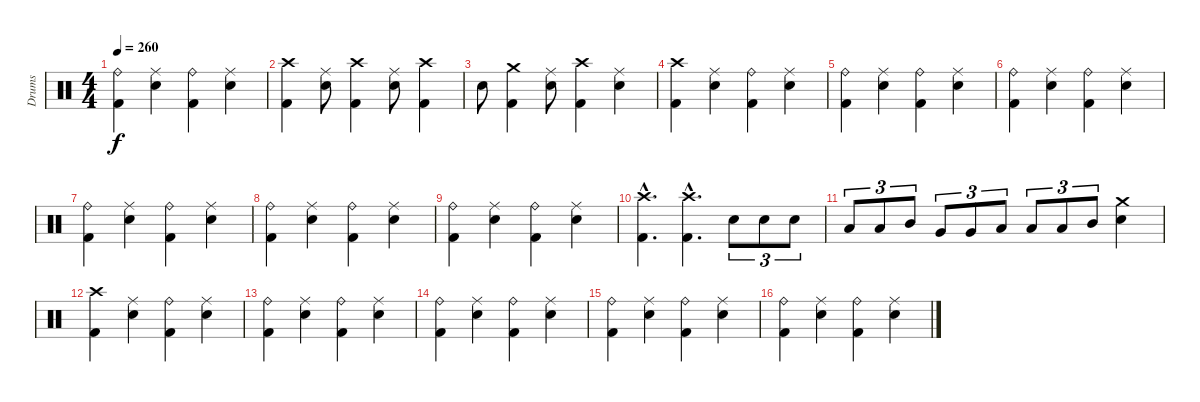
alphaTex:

\track ("Drums" "Drums") {instrument percussion}
\staff {score}
\articulation defaults
\ts (4 4)
\tempo 260
\clef neutral
\ks c
("Ride (bell)" "Kick (hit) 2").4{dy f} ("Ride (middle)" "Electric Snare (hit)").4 ("Ride (bell)" "Kick (hit) 2").4 ("Ride (middle)" "Electric Snare (hit)").4 |
("Crash high (hit)" "Kick (hit) 2").4 ("Ride (middle)" "Electric Snare (hit)").8 ("Crash high (hit)" "Kick (hit) 2").4 ("Ride (middle)" "Electric Snare (hit)").8 ("Crash high (hit)" "Kick (hit) 2").4 |
"Electric Snare (hit)".8 ("Crash medium (hit)" "Kick (hit) 2").4 ("Ride (middle)" "Electric Snare (hit)").8 ("Crash high (hit)" "Kick (hit) 2").4 ("Ride (middle)" "Electric Snare (hit)").4 |
("Crash high (hit)" "Kick (hit) 2").4 ("Ride (middle)" "Electric Snare (hit)").4 ("Ride (bell)" "Kick (hit) 2").4 ("Ride (middle)" "Electric Snare (hit)").4 |
("Ride (bell)" "Kick (hit) 2").4 ("Ride (middle)" "Electric Snare (hit)").4 ("Ride (bell)" "Kick (hit) 2").4 ("Ride (middle)" "Electric Snare (hit)").4 |
("Ride (bell)" "Kick (hit) 2").4 ("Ride (middle)" "Electric Snare (hit)").4 ("Ride (bell)" "Kick (hit) 2").4 ("Ride (middle)" "Electric Snare (hit)").4 |
("Ride (bell)" "Kick (hit) 2").4 ("Ride (middle)" "Electric Snare (hit)").4 ("Ride (bell)" "Kick (hit) 2").4 ("Ride (middle)" "Electric Snare (hit)").4 |
("Ride (bell)" "Kick (hit) 2").4 ("Ride (middle)" "Electric Snare (hit)").4 ("Ride (bell)" "Kick (hit) 2").4 ("Ride (middle)" "Electric Snare (hit)").4 |
("Ride (bell)" "Kick (hit) 2").4 ("Ride (middle)" "Electric Snare (hit)").4 ("Ride (bell)" "Kick (hit) 2").4 ("Ride (middle)" "Electric Snare (hit)").4 |
("Crash high (hit)"{hac} "Kick (hit) 2"{hac}).4{d} ("Crash high (hit)"{hac} "Kick (hit) 2"{hac}).4{d} "Electric Snare (hit)".8{tu (3 2)} "Electric Snare (hit)".8{tu (3 2)} "Electric Snare (hit)".8{tu (3 2)} |
"Low Tom (hit)".8{tu (3 2)} "Low Tom (hit)".8{tu (3 2)} "Mid Tom (hit)".8{tu (3 2)} "Very Low Tom (hit)".8{tu (3 2)} "Very Low Tom (hit)".8{tu (3 2)} "Low Tom (hit)".8{tu (3 2)} "Low Tom (hit)".8{tu (3 2)} "Low Tom (hit)".8{tu (3 2)} "Mid Tom (hit)".8{tu (3 2)} ("Crash medium (hit)" "Electric Snare (hit)").4 |
("Crash high (hit)" "Kick (hit) 2").4 ("Ride (middle)" "Electric Snare (hit)").4 ("Ride (bell)" "Kick (hit) 2").4 ("Ride (middle)" "Electric Snare (hit)").4 |
("Ride (bell)" "Kick (hit) 2").4 ("Ride (middle)" "Electric Snare (hit)").4 ("Ride (bell)" "Kick (hit) 2").4 ("Ride (middle)" "Electric Snare (hit)").4 |
("Ride (bell)" "Kick (hit) 2").4 ("Ride (middle)" "Electric Snare (hit)").4 ("Ride (bell)" "Kick (hit) 2").4 ("Ride (middle)" "Electric Snare (hit)").4 |
("Ride (bell)" "Kick (hit) 2").4 ("Ride (middle)" "Electric Snare (hit)").4 ("Ride (bell)" "Kick (hit) 2").4 ("Ride (middle)" "Electric Snare (hit)").4 |
("Ride (bell)" "Kick (hit) 2").4 ("Ride (middle)" "Electric Snare (hit)").4 ("Ride (bell)" "Kick (hit) 2").4 ("Ride (middle)" "Electric Snare (hit)").4
